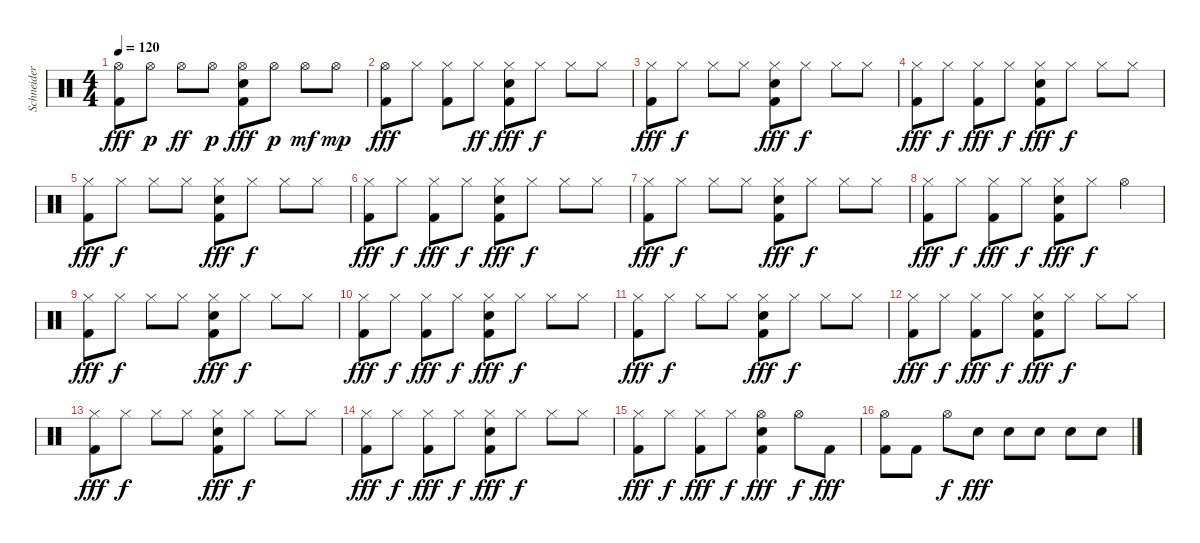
\track ("Schneider" "Schneider") {instrument percussion}
\staff {score}
\articulation defaults
\ts (4 4)
\tempo 120
\clef neutral
\ks c
("Hi-Hat (open)" "Kick (hit) 2").8{dy fff} "Hi-Hat (open)".8{dy p} "Hi-Hat (open)".8{dy ff} "Hi-Hat (open)".8{dy p} ("Hi-Hat (open)" "Kick (hit) 2" "Snare (hit) 2").8{dy fff} "Hi-Hat (open)".8{dy p} "Hi-Hat (open)".8{dy mf} "Hi-Hat (open)".8{dy mp} |
("Hi-Hat (open)" "Kick (hit) 2").8{dy fff} "Hi-Hat (closed)".8 ("Hi-Hat (closed)" "Kick (hit) 2").8 "Hi-Hat (closed)".8{dy ff} ("Hi-Hat (closed)" "Kick (hit) 2" "Snare (hit) 2").8{dy fff} "Hi-Hat (closed)".8{dy f} "Hi-Hat (closed)".8 "Hi-Hat (closed)".8 |
("Hi-Hat (closed)" "Kick (hit) 2").8{dy fff} "Hi-Hat (closed)".8{dy f} "Hi-Hat (closed)".8 "Hi-Hat (closed)".8 ("Hi-Hat (closed)" "Kick (hit) 2" "Snare (hit) 2").8{dy fff} "Hi-Hat (closed)".8{dy f} "Hi-Hat (closed)".8 "Hi-Hat (closed)".8 |
("Hi-Hat (closed)" "Kick (hit) 2").8{dy fff} "Hi-Hat (closed)".8{dy f} ("Hi-Hat (closed)" "Kick (hit) 2").8{dy fff} "Hi-Hat (closed)".8{dy f} ("Hi-Hat (closed)" "Kick (hit) 2" "Snare (hit) 2").8{dy fff} "Hi-Hat (closed)".8{dy f} "Hi-Hat (closed)".8 "Hi-Hat (closed)".8 |
("Hi-Hat (closed)" "Kick (hit) 2").8{dy fff} "Hi-Hat (closed)".8{dy f} "Hi-Hat (closed)".8 "Hi-Hat (closed)".8 ("Hi-Hat (closed)" "Kick (hit) 2" "Snare (hit) 2").8{dy fff} "Hi-Hat (closed)".8{dy f} "Hi-Hat (closed)".8 "Hi-Hat (closed)".8 |
("Hi-Hat (closed)" "Kick (hit) 2").8{dy fff} "Hi-Hat (closed)".8{dy f} ("Hi-Hat (closed)" "Kick (hit) 2").8{dy fff} "Hi-Hat (closed)".8{dy f} ("Hi-Hat (closed)" "Kick (hit) 2" "Snare (hit) 2").8{dy fff} "Hi-Hat (closed)".8{dy f} "Hi-Hat (closed)".8 "Hi-Hat (closed)".8 |
("Hi-Hat (closed)" "Kick (hit) 2").8{dy fff} "Hi-Hat (closed)".8{dy f} "Hi-Hat (closed)".8 "Hi-Hat (closed)".8 ("Hi-Hat (closed)" "Kick (hit) 2" "Snare (hit) 2").8{dy fff} "Hi-Hat (closed)".8{dy f} "Hi-Hat (closed)".8 "Hi-Hat (closed)".8 |
("Hi-Hat (closed)" "Kick (hit) 2").8{dy fff} "Hi-Hat (closed)".8{dy f} ("Hi-Hat (closed)" "Kick (hit) 2").8{dy fff} "Hi-Hat (closed)".8{dy f} ("Hi-Hat (closed)" "Kick (hit) 2" "Snare (hit) 2").8{dy fff} "Hi-Hat (closed)".8{dy f} "Hi-Hat (open)".4 |
("Hi-Hat (closed)" "Kick (hit) 2").8{dy fff} "Hi-Hat (closed)".8{dy f} "Hi-Hat (closed)".8 "Hi-Hat (closed)".8 ("Hi-Hat (closed)" "Kick (hit) 2" "Snare (hit) 2").8{dy fff} "Hi-Hat (closed)".8{dy f} "Hi-Hat (closed)".8 "Hi-Hat (closed)".8 |
("Hi-Hat (closed)" "Kick (hit) 2").8{dy fff} "Hi-Hat (closed)".8{dy f} ("Hi-Hat (closed)" "Kick (hit) 2").8{dy fff} "Hi-Hat (closed)".8{dy f} ("Hi-Hat (closed)" "Kick (hit) 2" "Snare (hit) 2").8{dy fff} "Hi-Hat (closed)".8{dy f} "Hi-Hat (closed)".8 "Hi-Hat (closed)".8 |
("Hi-Hat (closed)" "Kick (hit) 2").8{dy fff} "Hi-Hat (closed)".8{dy f} "Hi-Hat (closed)".8 "Hi-Hat (closed)".8 ("Hi-Hat (closed)" "Kick (hit) 2" "Snare (hit) 2").8{dy fff} "Hi-Hat (closed)".8{dy f} "Hi-Hat (closed)".8 "Hi-Hat (closed)".8 |
("Hi-Hat (closed)" "Kick (hit) 2").8{dy fff} "Hi-Hat (closed)".8{dy f} ("Hi-Hat (closed)" "Kick (hit) 2").8{dy fff} "Hi-Hat (closed)".8{dy f} ("Hi-Hat (closed)" "Kick (hit) 2" "Snare (hit) 2").8{dy fff} "Hi-Hat (closed)".8{dy f} "Hi-Hat (closed)".8 "Hi-Hat (closed)".8 |
("Hi-Hat (closed)" "Kick (hit) 2").8{dy fff} "Hi-Hat (closed)".8{dy f} "Hi-Hat (closed)".8 "Hi-Hat (closed)".8 ("Hi-Hat (closed)" "Kick (hit) 2" "Snare (hit) 2").8{dy fff} "Hi-Hat (closed)".8{dy f} "Hi-Hat (closed)".8 "Hi-Hat (closed)".8 |
("Hi-Hat (closed)" "Kick (hit) 2").8{dy fff} "Hi-Hat (closed)".8{dy f} ("Hi-Hat (closed)" "Kick (hit) 2").8{dy fff} "Hi-Hat (closed)".8{dy f} ("Hi-Hat (closed)" "Kick (hit) 2" "Snare (hit) 2").8{dy fff} "Hi-Hat (closed)".8{dy f} "Hi-Hat (closed)".8 "Hi-Hat (closed)".8 |
("Hi-Hat (closed)" "Kick (hit) 2").8{dy fff} "Hi-Hat (closed)".8{dy f} ("Hi-Hat (closed)" "Kick (hit) 2").8{dy fff} "Hi-Hat (closed)".8{dy f} ("Hi-Hat (open)" "Kick (hit) 2" "Snare (hit) 2").4{dy fff} "Hi-Hat (open)".8{dy f} "Kick (hit) 2".8{dy fff} |
("Hi-Hat (open)" "Kick (hit) 2").8 "Kick (hit) 2".8 "Hi-Hat (open)".8{dy f} "Snare (hit) 2".8{dy fff} "Snare (hit) 2".8 "Snare (hit) 2".8 "Snare (hit) 2".8 "Snare (hit) 2".8
